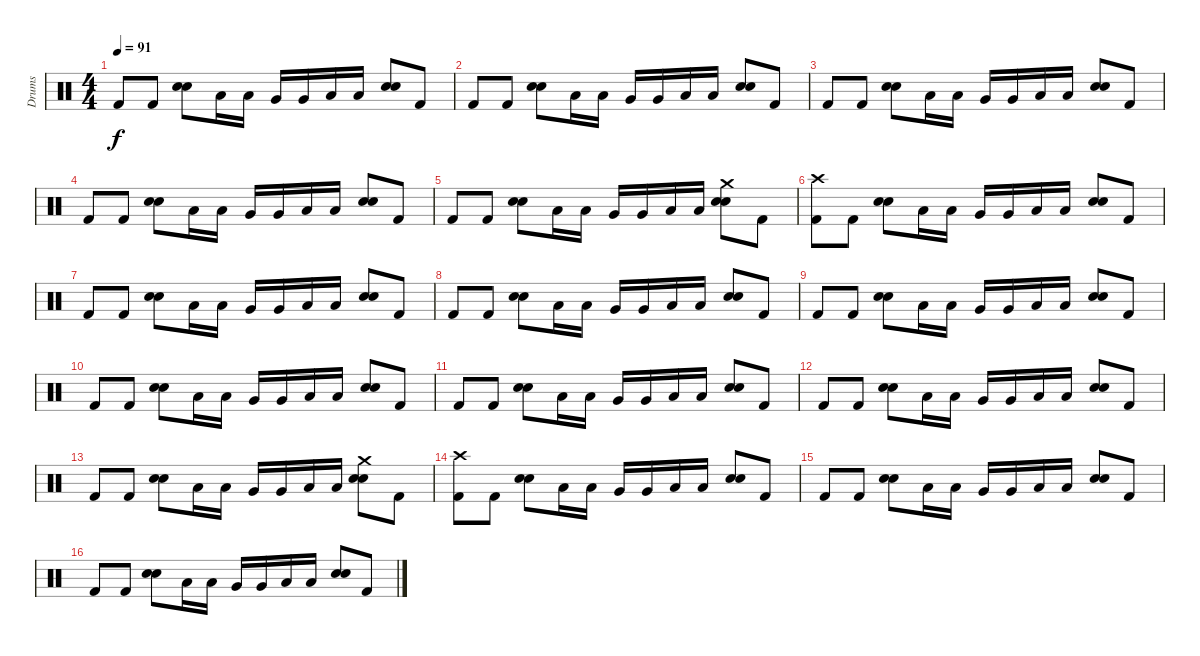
\track ("Drums" "Drums") {instrument percussion}
\staff {score}
\articulation defaults
\ts (4 4)
\tempo 91
\clef neutral
\ks c "Kick (hit) 2".8{dy f} "Kick (hit) 2".8
("Electric Snare (hit)" "Electric Snare (hit)").8 "Low Tom (hit)".16 "Low Tom (hit)".16 "Very Low Tom (hit)".16 "Very Low Tom (hit)".16 "Low Floor Tom (hit)".16 "Low Floor Tom (hit)".16 ("Electric Snare (hit)" "Electric Snare (hit)").8 "Kick (hit) 2".8 |
"Kick (hit) 2".8 "Kick (hit) 2".8 ("Electric Snare (hit)" "Electric Snare (hit)").8 "Low Tom (hit)".16 "Low Tom (hit)".16 "Very Low Tom (hit)".16 "Very Low Tom (hit)".16 "Low Floor Tom (hit)".16 "Low Floor Tom (hit)".16 ("Electric Snare (hit)" "Electric Snare (hit)").8 "Kick (hit) 2".8 |
"Kick (hit) 2".8 "Kick (hit) 2".8 ("Electric Snare (hit)" "Electric Snare (hit)").8 "Low Tom (hit)".16 "Low Tom (hit)".16 "Very Low Tom (hit)".16 "Very Low Tom (hit)".16 "Low Floor Tom (hit)".16 "Low Floor Tom (hit)".16 ("Electric Snare (hit)" "Electric Snare (hit)").8 "Kick (hit) 2".8 |
"Kick (hit) 2".8 "Kick (hit) 2".8 ("Electric Snare (hit)" "Electric Snare (hit)").8 "Low Tom (hit)".16 "Low Tom (hit)".16 "Very Low Tom (hit)".16 "Very Low Tom (hit)".16 "Low Floor Tom (hit)".16 "Low Floor Tom (hit)".16 ("Electric Snare (hit)" "Electric Snare (hit)").8 "Kick (hit) 2".8 |
"Kick (hit) 2".8 "Kick (hit) 2".8 ("Electric Snare (hit)" "Electric Snare (hit)").8 "Low Tom (hit)".16 "Low Tom (hit)".16 "Very Low Tom (hit)".16 "Very Low Tom (hit)".16 "Low Floor Tom (hit)".16 "Low Floor Tom (hit)".16 ("Crash medium (hit)" "Electric Snare (hit)" "Electric Snare (hit)").8 "Kick (hit) 2".8 |
("Crash high (hit)" "Kick (hit) 2").8 "Kick (hit) 2".8 ("Electric Snare (hit)" "Electric Snare (hit)").8 "Low Tom (hit)".16 "Low Tom (hit)".16 "Very Low Tom (hit)".16 "Very Low Tom (hit)".16 "Low Floor Tom (hit)".16 "Low Floor Tom (hit)".16 ("Electric Snare (hit)" "Electric Snare (hit)").8 "Kick (hit) 2".8 |
"Kick (hit) 2".8 "Kick (hit) 2".8 ("Electric Snare (hit)" "Electric Snare (hit)").8 "Low Tom (hit)".16 "Low Tom (hit)".16 "Very Low Tom (hit)".16 "Very Low Tom (hit)".16 "Low Floor Tom (hit)".16 "Low Floor Tom (hit)".16 ("Electric Snare (hit)" "Electric Snare (hit)").8 "Kick (hit) 2".8 |
"Kick (hit) 2".8 "Kick (hit) 2".8 ("Electric Snare (hit)" "Electric Snare (hit)").8 "Low Tom (hit)".16 "Low Tom (hit)".16 "Very Low Tom (hit)".16 "Very Low Tom (hit)".16 "Low Floor Tom (hit)".16 "Low Floor Tom (hit)".16 ("Electric Snare (hit)" "Electric Snare (hit)").8 "Kick (hit) 2".8 |
"Kick (hit) 2".8 "Kick (hit) 2".8 ("Electric Snare (hit)" "Electric Snare (hit)").8 "Low Tom (hit)".16 "Low Tom (hit)".16 "Very Low Tom (hit)".16 "Very Low Tom (hit)".16 "Low Floor Tom (hit)".16 "Low Floor Tom (hit)".16 ("Electric Snare (hit)" "Electric Snare (hit)").8 "Kick (hit) 2".8 |
"Kick (hit) 2".8 "Kick (hit) 2".8 ("Electric Snare (hit)" "Electric Snare (hit)").8 "Low Tom (hit)".16 "Low Tom (hit)".16 "Very Low Tom (hit)".16 "Very Low Tom (hit)".16 "Low Floor Tom (hit)".16 "Low Floor Tom (hit)".16 ("Electric Snare (hit)" "Electric Snare (hit)").8 "Kick (hit) 2".8 |
"Kick (hit) 2".8 "Kick (hit) 2".8 ("Electric Snare (hit)" "Electric Snare (hit)").8 "Low Tom (hit)".16 "Low Tom (hit)".16 "Very Low Tom (hit)".16 "Very Low Tom (hit)".16 "Low Floor Tom (hit)".16 "Low Floor Tom (hit)".16 ("Electric Snare (hit)" "Electric Snare (hit)").8 "Kick (hit) 2".8 |
"Kick (hit) 2".8 "Kick (hit) 2".8 ("Electric Snare (hit)" "Electric Snare (hit)").8 "Low Tom (hit)".16 "Low Tom (hit)".16 "Very Low Tom (hit)".16 "Very Low Tom (hit)".16 "Low Floor Tom (hit)".16 "Low Floor Tom (hit)".16 ("Electric Snare (hit)" "Electric Snare (hit)").8 "Kick (hit) 2".8 |
"Kick (hit) 2".8 "Kick (hit) 2".8 ("Electric Snare (hit)" "Electric Snare (hit)").8 "Low Tom (hit)".16 "Low Tom (hit)".16 "Very Low Tom (hit)".16 "Very Low Tom (hit)".16 "Low Floor Tom (hit)".16 "Low Floor Tom (hit)".16 ("Crash medium (hit)" "Electric Snare (hit)" "Electric Snare (hit)").8 "Kick (hit) 2".8 |
("Crash high (hit)" "Kick (hit) 2").8 "Kick (hit) 2".8 ("Electric Snare (hit)" "Electric Snare (hit)").8 "Low Tom (hit)".16 "Low Tom (hit)".16 "Very Low Tom (hit)".16 "Very Low Tom (hit)".16 "Low Floor Tom (hit)".16 "Low Floor Tom (hit)".16 ("Electric Snare (hit)" "Electric Snare (hit)").8 "Kick (hit) 2".8 |
"Kick (hit) 2".8 "Kick (hit) 2".8 ("Electric Snare (hit)" "Electric Snare (hit)").8 "Low Tom (hit)".16 "Low Tom (hit)".16 "Very Low Tom (hit)".16 "Very Low Tom (hit)".16 "Low Floor Tom (hit)".16 "Low Floor Tom (hit)".16 ("Electric Snare (hit)" "Electric Snare (hit)").8 "Kick (hit) 2".8 |
"Kick (hit) 2".8 "Kick (hit) 2".8 ("Electric Snare (hit)" "Electric Snare (hit)").8 "Low Tom (hit)".16 "Low Tom (hit)".16 "Very Low Tom (hit)".16 "Very Low Tom (hit)".16 "Low Floor Tom (hit)".16 "Low Floor Tom (hit)".16 ("Electric Snare (hit)" "Electric Snare (hit)").8 "Kick (hit) 2".8
